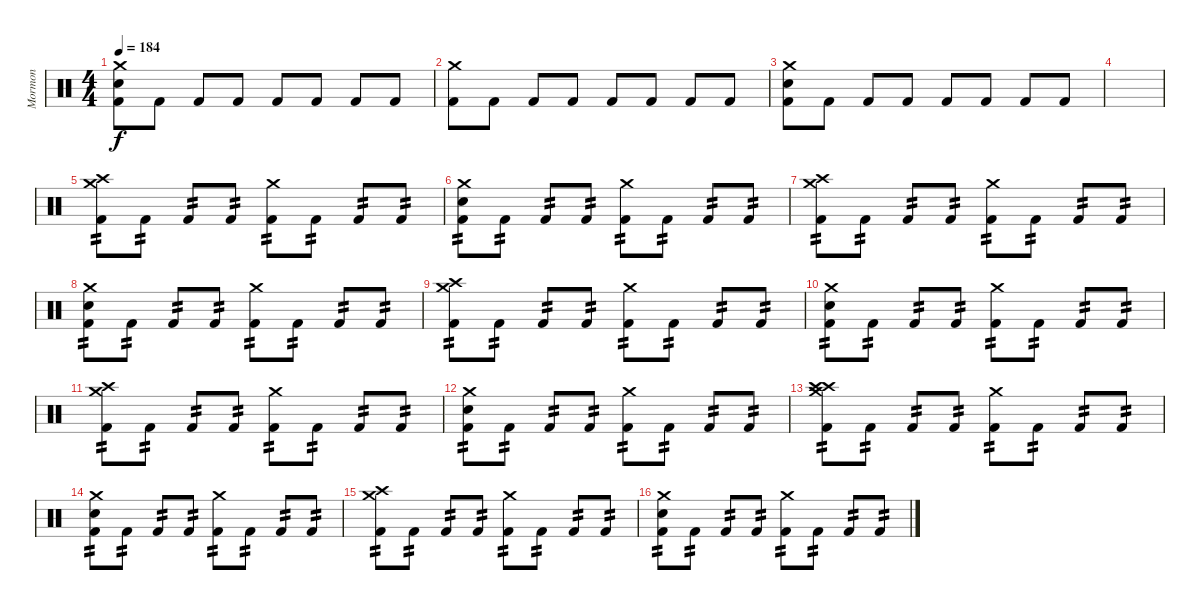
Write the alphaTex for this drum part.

\track ("Mormon" "Mormon") {solo instrument percussion}
\staff {score}
\articulation defaults
\ts (4 4)
\tempo 184
\clef neutral
\ks c
("Crash medium (hit)" "Snare (hit) 2" "Kick (hit) 2").8{dy f} "Kick (hit) 2".8 "Kick (hit) 2".8 "Kick (hit) 2".8 "Kick (hit) 2".8 "Kick (hit) 2".8 "Kick (hit) 2".8 "Kick (hit) 2".8 |
("Crash medium (hit)" "Kick (hit) 2").8 "Kick (hit) 2".8 "Kick (hit) 2".8 "Kick (hit) 2".8 "Kick (hit) 2".8 "Kick (hit) 2".8 "Kick (hit) 2".8 "Kick (hit) 2".8 |
("Crash medium (hit)" "Snare (hit) 2" "Kick (hit) 2").8 "Kick (hit) 2".8 "Kick (hit) 2".8 "Kick (hit) 2".8 "Kick (hit) 2".8 "Kick (hit) 2".8 "Kick (hit) 2".8 "Kick (hit) 2".8 |
|
("Crash medium (hit)" "Crash high (hit)" "Kick (hit) 2").8{tp 2} "Kick (hit) 2".8{tp 2} "Kick (hit) 2".8{tp 2} "Kick (hit) 2".8{tp 2} ("Crash medium (hit)" "Kick (hit) 2").8{tp 2} "Kick (hit) 2".8{tp 2} "Kick (hit) 2".8{tp 2} "Kick (hit) 2".8{tp 2} |
("Crash medium (hit)" "Snare (hit) 2" "Kick (hit) 2").8{tp 2} "Kick (hit) 2".8{tp 2} "Kick (hit) 2".8{tp 2} "Kick (hit) 2".8{tp 2} ("Crash medium (hit)" "Kick (hit) 2").8{tp 2} "Kick (hit) 2".8{tp 2} "Kick (hit) 2".8{tp 2} "Kick (hit) 2".8{tp 2} |
("Crash medium (hit)" "Crash high (hit)" "Kick (hit) 2").8{tp 2} "Kick (hit) 2".8{tp 2} "Kick (hit) 2".8{tp 2} "Kick (hit) 2".8{tp 2} ("Crash medium (hit)" "Kick (hit) 2").8{tp 2} "Kick (hit) 2".8{tp 2} "Kick (hit) 2".8{tp 2} "Kick (hit) 2".8{tp 2} |
("Crash medium (hit)" "Snare (hit) 2" "Kick (hit) 2").8{tp 2} "Kick (hit) 2".8{tp 2} "Kick (hit) 2".8{tp 2} "Kick (hit) 2".8{tp 2} ("Crash medium (hit)" "Kick (hit) 2").8{tp 2} "Kick (hit) 2".8{tp 2} "Kick (hit) 2".8{tp 2} "Kick (hit) 2".8{tp 2} |
("Crash medium (hit)" "Crash high (hit)" "Kick (hit) 2").8{tp 2} "Kick (hit) 2".8{tp 2} "Kick (hit) 2".8{tp 2} "Kick (hit) 2".8{tp 2} ("Crash medium (hit)" "Kick (hit) 2").8{tp 2} "Kick (hit) 2".8{tp 2} "Kick (hit) 2".8{tp 2} "Kick (hit) 2".8{tp 2} |
("Crash medium (hit)" "Snare (hit) 2" "Kick (hit) 2").8{tp 2} "Kick (hit) 2".8{tp 2} "Kick (hit) 2".8{tp 2} "Kick (hit) 2".8{tp 2} ("Crash medium (hit)" "Kick (hit) 2").8{tp 2} "Kick (hit) 2".8{tp 2} "Kick (hit) 2".8{tp 2} "Kick (hit) 2".8{tp 2} |
("Crash medium (hit)" "Crash high (hit)" "Kick (hit) 2").8{tp 2} "Kick (hit) 2".8{tp 2} "Kick (hit) 2".8{tp 2} "Kick (hit) 2".8{tp 2} ("Crash medium (hit)" "Kick (hit) 2").8{tp 2} "Kick (hit) 2".8{tp 2} "Kick (hit) 2".8{tp 2} "Kick (hit) 2".8{tp 2} |
("Crash medium (hit)" "Snare (hit) 2" "Kick (hit) 2").8{tp 2} "Kick (hit) 2".8{tp 2} "Kick (hit) 2".8{tp 2} "Kick (hit) 2".8{tp 2} ("Crash medium (hit)" "Kick (hit) 2").8{tp 2} "Kick (hit) 2".8{tp 2} "Kick (hit) 2".8{tp 2} "Kick (hit) 2".8{tp 2} |
("Crash medium (hit)" "Crash high (hit)" "Crash high (hit)" "Kick (hit) 2").8{tp 2} "Kick (hit) 2".8{tp 2} "Kick (hit) 2".8{tp 2} "Kick (hit) 2".8{tp 2} ("Crash medium (hit)" "Kick (hit) 2").8{tp 2} "Kick (hit) 2".8{tp 2} "Kick (hit) 2".8{tp 2} "Kick (hit) 2".8{tp 2} |
("Crash medium (hit)" "Snare (hit) 2" "Kick (hit) 2").8{tp 2} "Kick (hit) 2".8{tp 2} "Kick (hit) 2".8{tp 2} "Kick (hit) 2".8{tp 2} ("Crash medium (hit)" "Kick (hit) 2").8{tp 2} "Kick (hit) 2".8{tp 2} "Kick (hit) 2".8{tp 2} "Kick (hit) 2".8{tp 2} |
("Crash medium (hit)" "Crash high (hit)" "Kick (hit) 2").8{tp 2} "Kick (hit) 2".8{tp 2} "Kick (hit) 2".8{tp 2} "Kick (hit) 2".8{tp 2} ("Crash medium (hit)" "Kick (hit) 2").8{tp 2} "Kick (hit) 2".8{tp 2} "Kick (hit) 2".8{tp 2} "Kick (hit) 2".8{tp 2} |
("Crash medium (hit)" "Snare (hit) 2" "Kick (hit) 2").8{tp 2} "Kick (hit) 2".8{tp 2} "Kick (hit) 2".8{tp 2} "Kick (hit) 2".8{tp 2} ("Crash medium (hit)" "Kick (hit) 2").8{tp 2} "Kick (hit) 2".8{tp 2} "Kick (hit) 2".8{tp 2} "Kick (hit) 2".8{tp 2}
